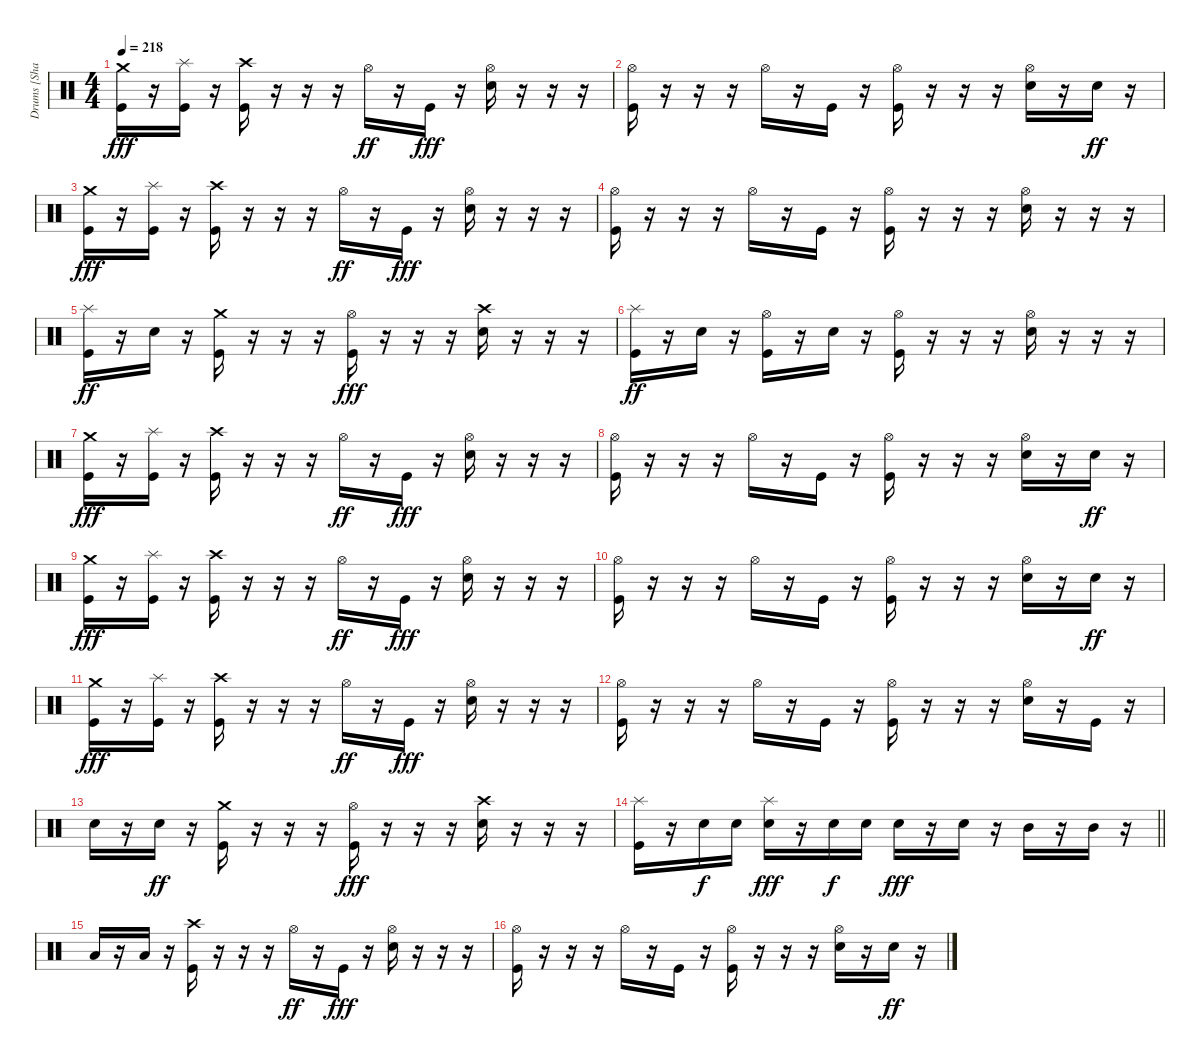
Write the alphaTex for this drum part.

\track ("Drums [Shannon Larkin]" "Drums [Sha") {instrument percussion}
\staff {score}
\articulation defaults
\ts (4 4)
\tempo 218
\clef neutral
\ks c
("Crash medium (hit)" "Kick (hit)").16{dy fff} r.16 ("Splash (hit)" "Kick (hit)").16 r.16 ("Crash high (hit)" "Kick (hit)").16 r.16 r.16 r.16 "Hi-Hat (open)".16{dy ff} r.16 "Kick (hit)".16{dy fff} r.16 ("Hi-Hat (open)" "Electric Snare (hit)").16 r.16 r.16 r.16 |
("Hi-Hat (open)" "Kick (hit)").16 r.16 r.16 r.16 "Hi-Hat (open)".16 r.16 "Kick (hit)".16 r.16 ("Hi-Hat (open)" "Kick (hit)").16 r.16 r.16 r.16 ("Hi-Hat (open)" "Electric Snare (hit)").16 r.16 "Electric Snare (hit)".16{dy ff} r.16 |
("Crash medium (hit)" "Kick (hit)").16{dy fff} r.16 ("Splash (hit)" "Kick (hit)").16 r.16 ("Crash high (hit)" "Kick (hit)").16 r.16 r.16 r.16 "Hi-Hat (open)".16{dy ff} r.16 "Kick (hit)".16{dy fff} r.16 ("Hi-Hat (open)" "Electric Snare (hit)").16 r.16 r.16 r.16 |
("Hi-Hat (open)" "Kick (hit)").16 r.16 r.16 r.16 "Hi-Hat (open)".16 r.16 "Kick (hit)".16 r.16 ("Hi-Hat (open)" "Kick (hit)").16 r.16 r.16 r.16 ("Hi-Hat (open)" "Electric Snare (hit)").16 r.16 r.16 r.16 |
("Splash (hit)" "Kick (hit)").16{dy ff} r.16 "Electric Snare (hit)".16 r.16 ("Crash medium (hit)" "Kick (hit)").16 r.16 r.16 r.16 ("Hi-Hat (open)" "Kick (hit)").16{dy fff} r.16 r.16 r.16 ("Crash high (hit)" "Electric Snare (hit)").16 r.16 r.16 r.16 |
("Splash (hit)" "Kick (hit)").16{dy ff} r.16 "Electric Snare (hit)".16 r.16 ("Hi-Hat (open)" "Kick (hit)").16 r.16 "Electric Snare (hit)".16 r.16 ("Hi-Hat (open)" "Kick (hit)").16 r.16 r.16 r.16 ("Hi-Hat (open)" "Electric Snare (hit)").16 r.16 r.16 r.16 |
("Crash medium (hit)" "Kick (hit)").16{dy fff} r.16 ("Splash (hit)" "Kick (hit)").16 r.16 ("Crash high (hit)" "Kick (hit)").16 r.16 r.16 r.16 "Hi-Hat (open)".16{dy ff} r.16 "Kick (hit)".16{dy fff} r.16 ("Hi-Hat (open)" "Electric Snare (hit)").16 r.16 r.16 r.16 |
("Hi-Hat (open)" "Kick (hit)").16 r.16 r.16 r.16 "Hi-Hat (open)".16 r.16 "Kick (hit)".16 r.16 ("Hi-Hat (open)" "Kick (hit)").16 r.16 r.16 r.16 ("Hi-Hat (open)" "Electric Snare (hit)").16 r.16 "Electric Snare (hit)".16{dy ff} r.16 |
("Crash medium (hit)" "Kick (hit)").16{dy fff} r.16 ("Splash (hit)" "Kick (hit)").16 r.16 ("Crash high (hit)" "Kick (hit)").16 r.16 r.16 r.16 "Hi-Hat (open)".16{dy ff} r.16 "Kick (hit)".16{dy fff} r.16 ("Hi-Hat (open)" "Electric Snare (hit)").16 r.16 r.16 r.16 |
("Hi-Hat (open)" "Kick (hit)").16 r.16 r.16 r.16 "Hi-Hat (open)".16 r.16 "Kick (hit)".16 r.16 ("Hi-Hat (open)" "Kick (hit)").16 r.16 r.16 r.16 ("Hi-Hat (open)" "Electric Snare (hit)").16 r.16 "Electric Snare (hit)".16{dy ff} r.16 |
("Crash medium (hit)" "Kick (hit)").16{dy fff} r.16 ("Splash (hit)" "Kick (hit)").16 r.16 ("Crash high (hit)" "Kick (hit)").16 r.16 r.16 r.16 "Hi-Hat (open)".16{dy ff} r.16 "Kick (hit)".16{dy fff} r.16 ("Hi-Hat (open)" "Electric Snare (hit)").16 r.16 r.16 r.16 |
("Hi-Hat (open)" "Kick (hit)").16 r.16 r.16 r.16 "Hi-Hat (open)".16 r.16 "Kick (hit)".16 r.16 ("Hi-Hat (open)" "Kick (hit)").16 r.16 r.16 r.16 ("Hi-Hat (open)" "Electric Snare (hit)").16 r.16 "Kick (hit)".16 r.16 |
"Electric Snare (hit)".16 r.16 "Electric Snare (hit)".16{dy ff} r.16 ("Crash medium (hit)" "Kick (hit)").16 r.16 r.16 r.16 ("Hi-Hat (open)" "Kick (hit)").16{dy fff} r.16 r.16 r.16 ("Crash high (hit)" "Electric Snare (hit)").16 r.16 r.16 r.16 |
\barLineRight lightlight
("Splash (hit)" "Kick (hit)").16 r.16 "Electric Snare (hit)".16{dy f} "Electric Snare (hit)".16 ("Splash (hit)" "Electric Snare (hit)").16{dy fff} r.16 "Electric Snare (hit)".16{dy f} "Electric Snare (hit)".16 "Electric Snare (hit)".16{dy fff} r.16 "Electric Snare (hit)".16 r.16 "Mid Tom (hit)".16 r.16 "Mid Tom (hit)".16 r.16 |
"Low Tom (hit)".16 r.16 "Low Tom (hit)".16 r.16 ("Crash high (hit)" "Kick (hit)").16 r.16 r.16 r.16 "Hi-Hat (open)".16{dy ff} r.16 "Kick (hit)".16{dy fff} r.16 ("Hi-Hat (open)" "Electric Snare (hit)").16 r.16 r.16 r.16 |
("Hi-Hat (open)" "Kick (hit)").16 r.16 r.16 r.16 "Hi-Hat (open)".16 r.16 "Kick (hit)".16 r.16 ("Hi-Hat (open)" "Kick (hit)").16 r.16 r.16 r.16 ("Hi-Hat (open)" "Electric Snare (hit)").16 r.16 "Electric Snare (hit)".16{dy ff} r.16
